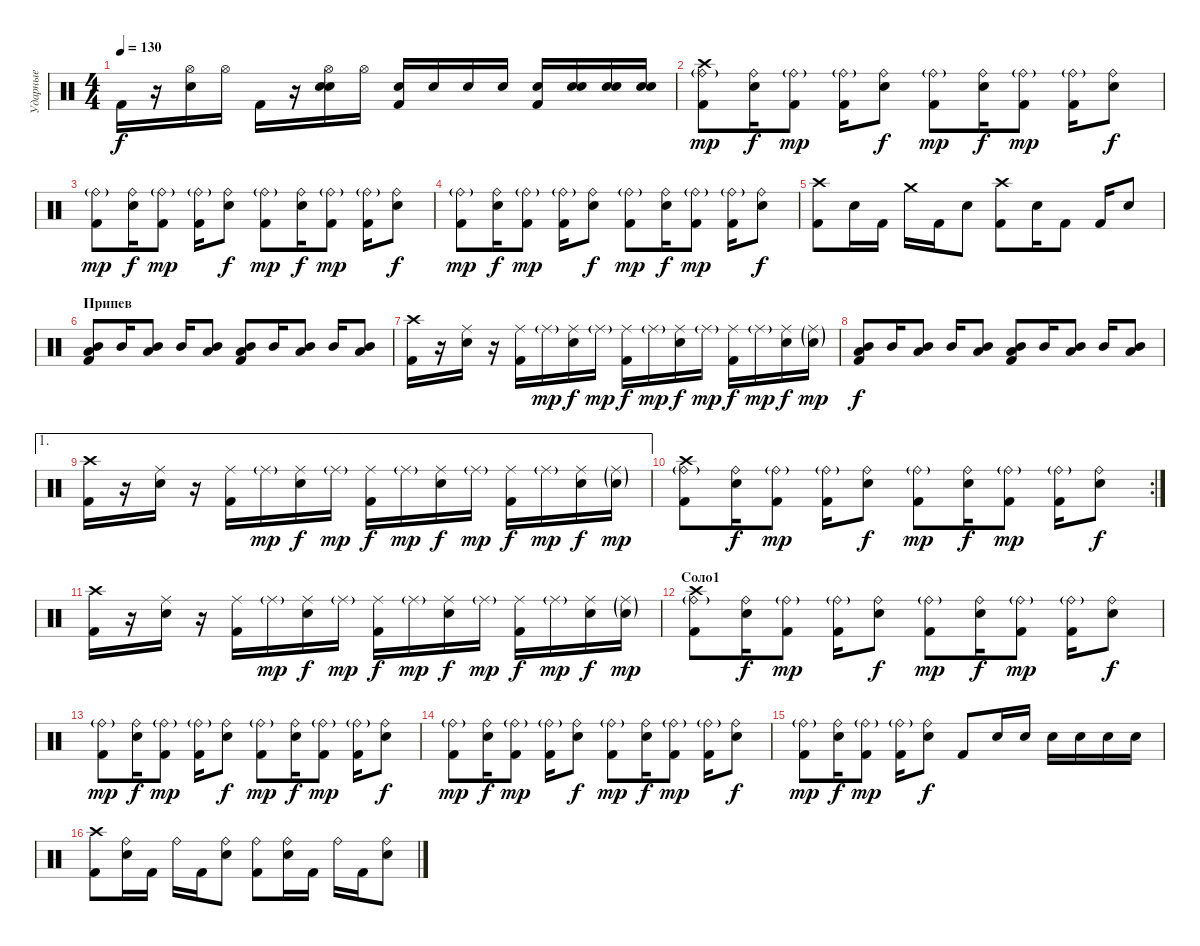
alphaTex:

\track ("Ударные" "Ударные") {instrument percussion}
\staff {score}
\articulation defaults
\ts (4 4)
\tempo 130
\clef neutral
\ks c "Kick (hit) 2".16{dy f}
r.16 ("Hi-Hat (open)" "Snare (hit) 2").16 "Hi-Hat (open)".16 "Kick (hit) 2".16 r.16 ("Hi-Hat (open)" "Electric Snare (hit)" "Snare (hit) 2").16 "Hi-Hat (open)".16 ("Snare (hit) 2" "Kick (hit) 2").16 "Snare (hit) 2".16 "Snare (hit) 2".16 "Snare (hit) 2".16 ("Snare (hit) 2" "Kick (hit) 2").16 ("Snare (hit) 2" "Snare (hit) 2").16 ("Snare (hit) 2" "Snare (hit) 2").16 ("Snare (hit) 2" "Snare (hit) 2").16 |
("Crash high (hit)" "Ride (bell)"{g} "Kick (hit) 2").8{dy mp} ("Snare (hit) 2" "Ride (bell)").16{dy f} ("Ride (bell)"{g} "Kick (hit) 2").8{dy mp} ("Ride (bell)"{g} "Kick (hit) 2").16 ("Snare (hit) 2" "Ride (bell)").8{dy f} ("Ride (bell)"{g} "Kick (hit) 2").8{dy mp} ("Snare (hit) 2" "Ride (bell)").16{dy f} ("Ride (bell)"{g} "Kick (hit) 2").8{dy mp} ("Ride (bell)"{g} "Kick (hit) 2").16 ("Snare (hit) 2" "Ride (bell)").8{dy f} |
("Ride (bell)"{g} "Kick (hit) 2").8{dy mp} ("Snare (hit) 2" "Ride (bell)").16{dy f} ("Ride (bell)"{g} "Kick (hit) 2").8{dy mp} ("Ride (bell)"{g} "Kick (hit) 2").16 ("Snare (hit) 2" "Ride (bell)").8{dy f} ("Ride (bell)"{g} "Kick (hit) 2").8{dy mp} ("Snare (hit) 2" "Ride (bell)").16{dy f} ("Ride (bell)"{g} "Kick (hit) 2").8{dy mp} ("Ride (bell)"{g} "Kick (hit) 2").16 ("Snare (hit) 2" "Ride (bell)").8{dy f} |
("Ride (bell)"{g} "Kick (hit) 2").8{dy mp} ("Snare (hit) 2" "Ride (bell)").16{dy f} ("Ride (bell)"{g} "Kick (hit) 2").8{dy mp} ("Ride (bell)"{g} "Kick (hit) 2").16 ("Snare (hit) 2" "Ride (bell)").8{dy f} ("Ride (bell)"{g} "Kick (hit) 2").8{dy mp} ("Snare (hit) 2" "Ride (bell)").16{dy f} ("Ride (bell)"{g} "Kick (hit) 2").8{dy mp} ("Ride (bell)"{g} "Kick (hit) 2").16 ("Snare (hit) 2" "Ride (bell)").8{dy f} |
("Crash high (hit)" "Kick (hit) 2").8 "Snare (hit) 2".16 "Kick (hit) 2".16 "Crash medium (hit)".16 "Kick (hit) 2".16 "Snare (hit) 2".8 ("Crash high (hit)" "Kick (hit) 2").8 "Snare (hit) 2".16 "Kick (hit) 2".8 "Kick (hit) 2".16 "Snare (hit) 2".8 |
\section ("" "Припев")
("Low Tom (hit)" "Mid Tom (hit)" "Kick (hit) 2").8 "Mid Tom (hit)".16 ("Low Tom (hit)" "Mid Tom (hit)").8 "Mid Tom (hit)".16 ("Low Tom (hit)" "Mid Tom (hit)").8 ("Low Tom (hit)" "Mid Tom (hit)" "Kick (hit) 2").8 "Mid Tom (hit)".16 ("Low Tom (hit)" "Mid Tom (hit)").8 "Mid Tom (hit)".16 ("Low Tom (hit)" "Mid Tom (hit)").8 |
("Crash high (hit)" "Kick (hit) 2").16 r.16 ("Ride (middle)" "Snare (hit) 2").16 r.16 ("Ride (middle)" "Kick (hit) 2").16 "Ride (middle)"{g}.16{dy mp} ("Ride (middle)" "Snare (hit) 2").16{dy f} "Ride (middle)"{g}.16{dy mp} ("Ride (middle)" "Kick (hit) 2").16{dy f} "Ride (middle)"{g}.16{dy mp} ("Ride (middle)" "Snare (hit) 2").16{dy f} "Ride (middle)"{g}.16{dy mp} ("Ride (middle)" "Kick (hit) 2").16{dy f} "Ride (middle)"{g}.16{dy mp} ("Ride (middle)" "Snare (hit) 2").16{dy f} ("Ride (middle)"{g} "Snare (hit) 2"{g}).16{dy mp} |
("Low Tom (hit)" "Mid Tom (hit)" "Kick (hit) 2").8{dy f} "Mid Tom (hit)".16 ("Low Tom (hit)" "Mid Tom (hit)").8 "Mid Tom (hit)".16 ("Low Tom (hit)" "Mid Tom (hit)").8 ("Low Tom (hit)" "Mid Tom (hit)" "Kick (hit) 2").8 "Mid Tom (hit)".16 ("Low Tom (hit)" "Mid Tom (hit)").8 "Mid Tom (hit)".16 ("Low Tom (hit)" "Mid Tom (hit)").8 |
\ae 1
("Crash high (hit)" "Kick (hit) 2").16 r.16 ("Ride (middle)" "Snare (hit) 2").16 r.16 ("Ride (middle)" "Kick (hit) 2").16 "Ride (middle)"{g}.16{dy mp} ("Ride (middle)" "Snare (hit) 2").16{dy f} "Ride (middle)"{g}.16{dy mp} ("Ride (middle)" "Kick (hit) 2").16{dy f} "Ride (middle)"{g}.16{dy mp} ("Ride (middle)" "Snare (hit) 2").16{dy f} "Ride (middle)"{g}.16{dy mp} ("Ride (middle)" "Kick (hit) 2").16{dy f} "Ride (middle)"{g}.16{dy mp} ("Ride (middle)" "Snare (hit) 2").16{dy f} ("Ride (middle)"{g} "Snare (hit) 2"{g}).16{dy mp} |
\rc 2
("Crash high (hit)" "Ride (bell)"{g} "Kick (hit) 2").8 ("Snare (hit) 2" "Ride (bell)").16{dy f} ("Ride (bell)"{g} "Kick (hit) 2").8{dy mp} ("Ride (bell)"{g} "Kick (hit) 2").16 ("Snare (hit) 2" "Ride (bell)").8{dy f} ("Ride (bell)"{g} "Kick (hit) 2").8{dy mp} ("Snare (hit) 2" "Ride (bell)").16{dy f} ("Ride (bell)"{g} "Kick (hit) 2").8{dy mp} ("Ride (bell)"{g} "Kick (hit) 2").16 ("Snare (hit) 2" "Ride (bell)").8{dy f} |
("Crash high (hit)" "Kick (hit) 2").16 r.16 ("Ride (middle)" "Snare (hit) 2").16 r.16 ("Ride (middle)" "Kick (hit) 2").16 "Ride (middle)"{g}.16{dy mp} ("Ride (middle)" "Snare (hit) 2").16{dy f} "Ride (middle)"{g}.16{dy mp} ("Ride (middle)" "Kick (hit) 2").16{dy f} "Ride (middle)"{g}.16{dy mp} ("Ride (middle)" "Snare (hit) 2").16{dy f} "Ride (middle)"{g}.16{dy mp} ("Ride (middle)" "Kick (hit) 2").16{dy f} "Ride (middle)"{g}.16{dy mp} ("Ride (middle)" "Snare (hit) 2").16{dy f} ("Ride (middle)"{g} "Snare (hit) 2"{g}).16{dy mp} |
\section ("" "Соло1")
("Crash high (hit)" "Ride (bell)"{g} "Kick (hit) 2").8 ("Snare (hit) 2" "Ride (bell)").16{dy f} ("Ride (bell)"{g} "Kick (hit) 2").8{dy mp} ("Ride (bell)"{g} "Kick (hit) 2").16 ("Snare (hit) 2" "Ride (bell)").8{dy f} ("Ride (bell)"{g} "Kick (hit) 2").8{dy mp} ("Snare (hit) 2" "Ride (bell)").16{dy f} ("Ride (bell)"{g} "Kick (hit) 2").8{dy mp} ("Ride (bell)"{g} "Kick (hit) 2").16 ("Snare (hit) 2" "Ride (bell)").8{dy f} |
("Ride (bell)"{g} "Kick (hit) 2").8{dy mp} ("Snare (hit) 2" "Ride (bell)").16{dy f} ("Ride (bell)"{g} "Kick (hit) 2").8{dy mp} ("Ride (bell)"{g} "Kick (hit) 2").16 ("Snare (hit) 2" "Ride (bell)").8{dy f} ("Ride (bell)"{g} "Kick (hit) 2").8{dy mp} ("Snare (hit) 2" "Ride (bell)").16{dy f} ("Ride (bell)"{g} "Kick (hit) 2").8{dy mp} ("Ride (bell)"{g} "Kick (hit) 2").16 ("Snare (hit) 2" "Ride (bell)").8{dy f} |
("Ride (bell)"{g} "Kick (hit) 2").8{dy mp} ("Snare (hit) 2" "Ride (bell)").16{dy f} ("Ride (bell)"{g} "Kick (hit) 2").8{dy mp} ("Ride (bell)"{g} "Kick (hit) 2").16 ("Snare (hit) 2" "Ride (bell)").8{dy f} ("Ride (bell)"{g} "Kick (hit) 2").8{dy mp} ("Snare (hit) 2" "Ride (bell)").16{dy f} ("Ride (bell)"{g} "Kick (hit) 2").8{dy mp} ("Ride (bell)"{g} "Kick (hit) 2").16 ("Snare (hit) 2" "Ride (bell)").8{dy f} |
("Ride (bell)"{g} "Kick (hit) 2").8{dy mp} ("Snare (hit) 2" "Ride (bell)").16{dy f} ("Ride (bell)"{g} "Kick (hit) 2").8{dy mp} ("Ride (bell)"{g} "Kick (hit) 2").16 ("Snare (hit) 2" "Ride (bell)").8{dy f} "Kick (hit) 2".8 "Snare (hit) 2".16 "Snare (hit) 2".16 "Snare (hit) 2".16 "Snare (hit) 2".16 "Snare (hit) 2".16 "Snare (hit) 2".16 |
("Crash high (hit)" "Kick (hit) 2").8 ("Ride (bell)" "Snare (hit) 2").16 "Kick (hit) 2".16 "Ride (bell)".16 "Kick (hit) 2".16 ("Ride (bell)" "Snare (hit) 2").8 ("Ride (bell)" "Kick (hit) 2").8 ("Ride (bell)" "Snare (hit) 2").16 "Kick (hit) 2".16 "Ride (bell)".16 "Kick (hit) 2".16 ("Ride (bell)" "Snare (hit) 2").8
